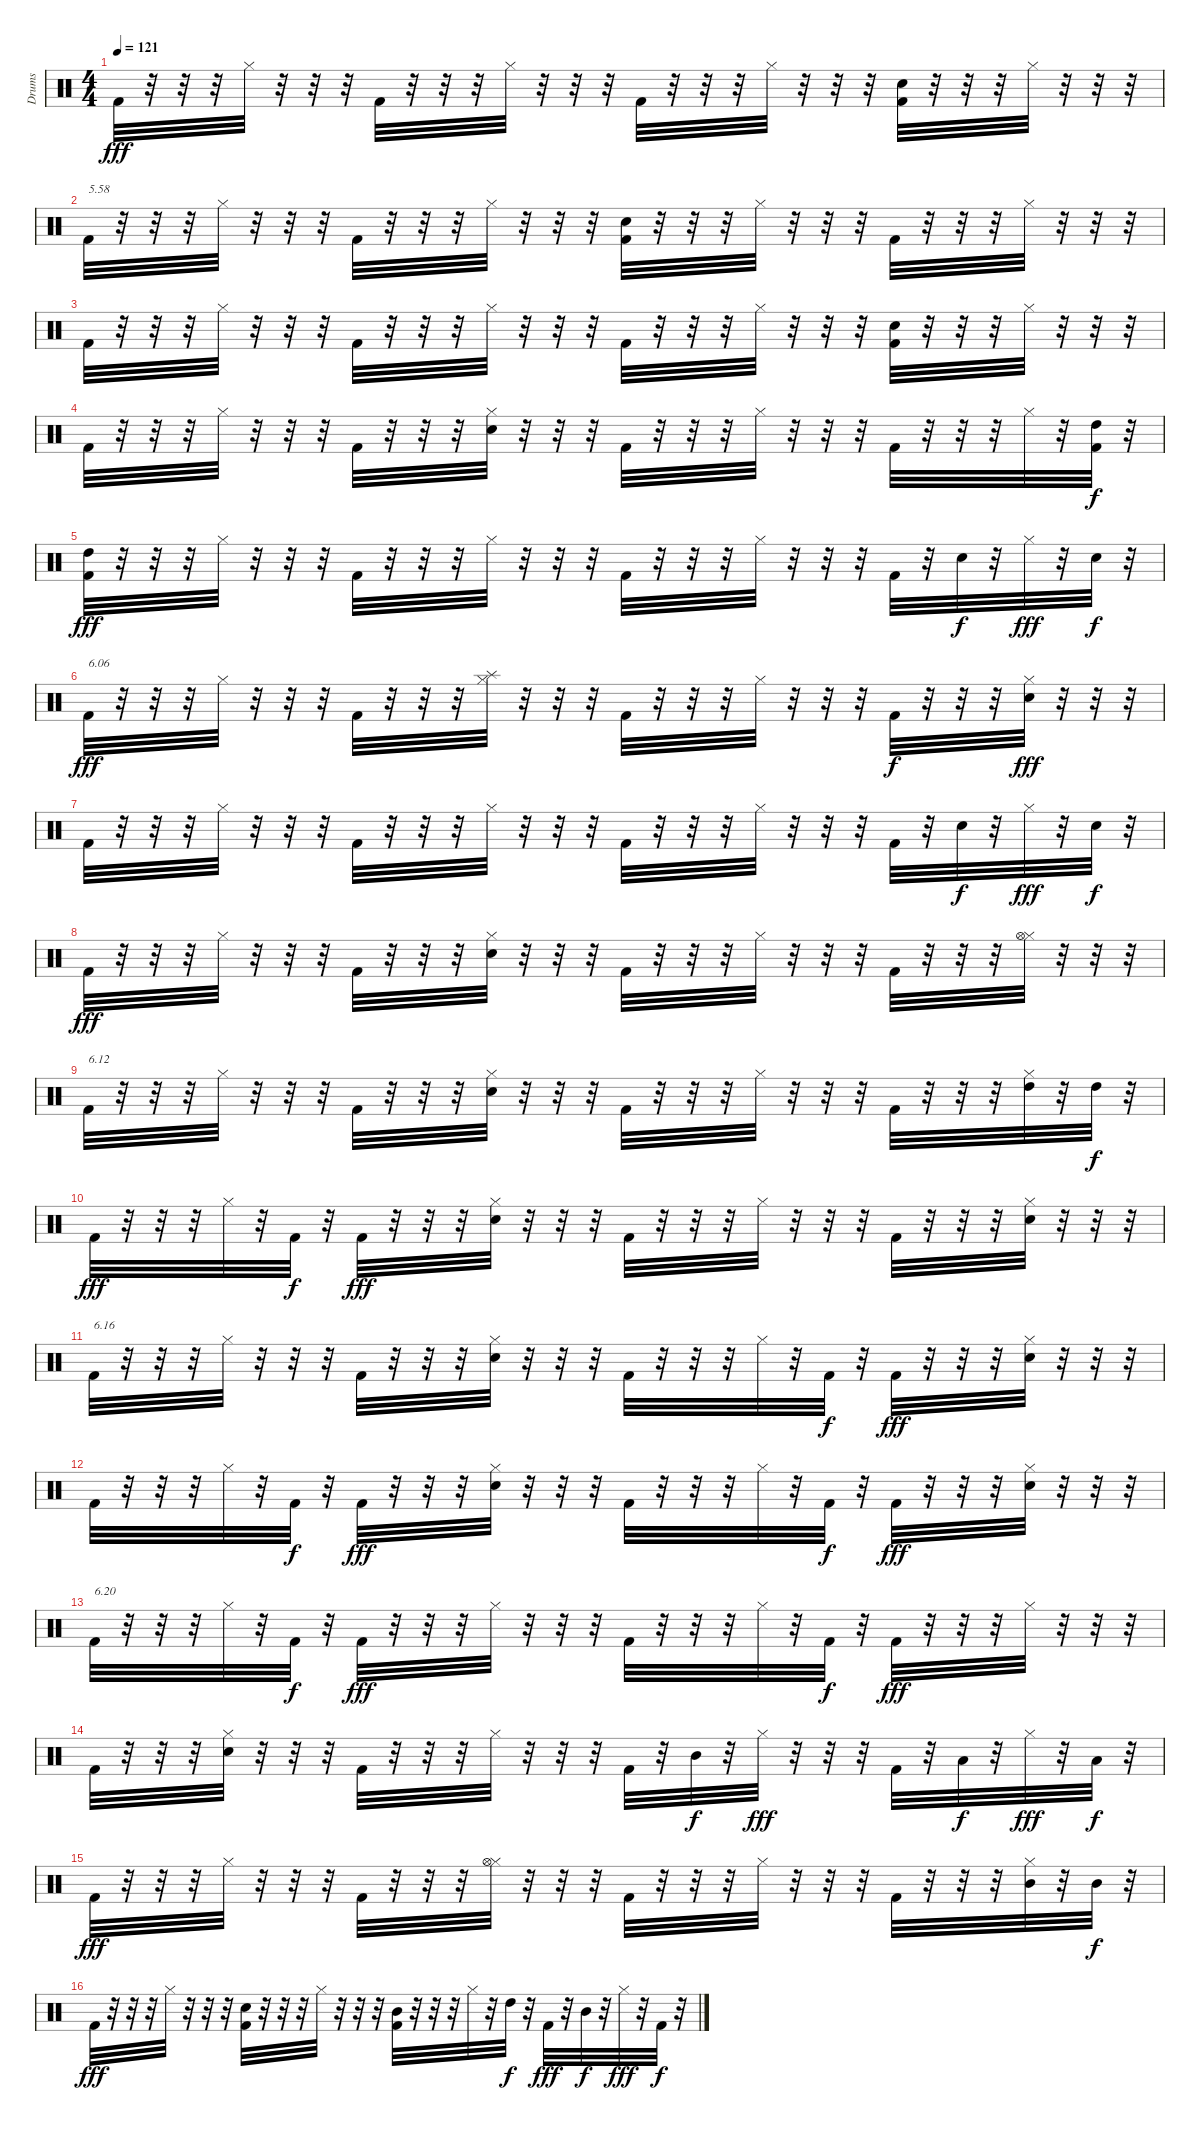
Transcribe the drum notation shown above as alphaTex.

\track ("Drums" "Drums") {instrument percussion}
\staff {score}
\articulation defaults
\ts (4 4)
\tempo 121
\clef neutral
\ks c "Kick (hit) 2".32{dy fff}
r.32 r.32 r.32 "Hi-Hat (closed)".32 r.32 r.32 r.32 "Kick (hit) 2".32 r.32 r.32 r.32 "Hi-Hat (closed)".32 r.32 r.32 r.32 "Kick (hit) 2".32 r.32 r.32 r.32 "Hi-Hat (closed)".32 r.32 r.32 r.32 ("Kick (hit) 2" "Snare (hit) 2").32 r.32 r.32 r.32 "Hi-Hat (closed)".32 r.32 r.32 r.32 |
"Kick (hit) 2".32{txt "5.58"} r.32 r.32 r.32 "Hi-Hat (closed)".32 r.32 r.32 r.32 "Kick (hit) 2".32 r.32 r.32 r.32 "Hi-Hat (closed)".32 r.32 r.32 r.32 ("Kick (hit) 2" "Snare (hit) 2").32 r.32 r.32 r.32 "Hi-Hat (closed)".32 r.32 r.32 r.32 "Kick (hit) 2".32 r.32 r.32 r.32 "Hi-Hat (closed)".32 r.32 r.32 r.32 |
"Kick (hit) 2".32 r.32 r.32 r.32 "Hi-Hat (closed)".32 r.32 r.32 r.32 "Kick (hit) 2".32 r.32 r.32 r.32 "Hi-Hat (closed)".32 r.32 r.32 r.32 "Kick (hit) 2".32 r.32 r.32 r.32 "Hi-Hat (closed)".32 r.32 r.32 r.32 ("Kick (hit) 2" "Snare (hit) 2").32 r.32 r.32 r.32 "Hi-Hat (closed)".32 r.32 r.32 r.32 |
"Kick (hit) 2".32 r.32 r.32 r.32 "Hi-Hat (closed)".32 r.32 r.32 r.32 "Kick (hit) 2".32 r.32 r.32 r.32 ("Hi-Hat (closed)" "Snare (hit) 2").32 r.32 r.32 r.32 "Kick (hit) 2".32 r.32 r.32 r.32 "Hi-Hat (closed)".32 r.32 r.32 r.32 "Kick (hit) 2".32 r.32 r.32 r.32 "Hi-Hat (closed)".32 r.32 ("Kick (hit) 2" "High Tom (hit)").32{dy f} r.32 |
("Kick (hit) 2" "High Tom (hit)").32{dy fff} r.32 r.32 r.32 "Hi-Hat (closed)".32 r.32 r.32 r.32 "Kick (hit) 2".32 r.32 r.32 r.32 "Hi-Hat (closed)".32 r.32 r.32 r.32 "Kick (hit) 2".32 r.32 r.32 r.32 "Hi-Hat (closed)".32 r.32 r.32 r.32 "Kick (hit) 2".32 r.32 "Snare (hit) 2".32{dy f} r.32 "Hi-Hat (closed)".32{dy fff} r.32 "Snare (hit) 2".32{dy f} r.32 |
"Kick (hit) 2".32{txt "6.06" dy fff} r.32 r.32 r.32 "Hi-Hat (closed)".32 r.32 r.32 r.32 "Kick (hit) 2".32 r.32 r.32 r.32 ("Hi-Hat (closed)" "Splash (hit)").32 r.32 r.32 r.32 "Kick (hit) 2".32 r.32 r.32 r.32 "Hi-Hat (closed)".32 r.32 r.32 r.32 "Kick (hit) 2".32{dy f} r.32 r.32 r.32 ("Hi-Hat (closed)" "Snare (hit) 2").32{dy fff} r.32 r.32 r.32 |
"Kick (hit) 2".32 r.32 r.32 r.32 "Hi-Hat (closed)".32 r.32 r.32 r.32 "Kick (hit) 2".32 r.32 r.32 r.32 "Hi-Hat (closed)".32 r.32 r.32 r.32 "Kick (hit) 2".32 r.32 r.32 r.32 "Hi-Hat (closed)".32 r.32 r.32 r.32 "Kick (hit) 2".32 r.32 "Snare (hit) 2".32{dy f} r.32 "Hi-Hat (closed)".32{dy fff} r.32 "Snare (hit) 2".32{dy f} r.32 |
"Kick (hit) 2".32{dy fff} r.32 r.32 r.32 "Hi-Hat (closed)".32 r.32 r.32 r.32 "Kick (hit) 2".32 r.32 r.32 r.32 ("Hi-Hat (closed)" "Snare (hit) 2").32 r.32 r.32 r.32 "Kick (hit) 2".32 r.32 r.32 r.32 "Hi-Hat (closed)".32 r.32 r.32 r.32 "Kick (hit) 2".32 r.32 r.32 r.32 ("Hi-Hat (closed)" "Hi-Hat (open)").32 r.32 r.32 r.32 |
"Kick (hit) 2".32{txt "6.12"} r.32 r.32 r.32 "Hi-Hat (closed)".32 r.32 r.32 r.32 "Kick (hit) 2".32 r.32 r.32 r.32 ("Hi-Hat (closed)" "Snare (hit) 2").32 r.32 r.32 r.32 "Kick (hit) 2".32 r.32 r.32 r.32 "Hi-Hat (closed)".32 r.32 r.32 r.32 "Kick (hit) 2".32 r.32 r.32 r.32 ("Hi-Hat (closed)" "High Tom (hit)").32 r.32 "High Tom (hit)".32{dy f} r.32 |
"Kick (hit) 2".32{dy fff} r.32 r.32 r.32 "Hi-Hat (closed)".32 r.32 "Kick (hit) 2".32{dy f} r.32 "Kick (hit) 2".32{dy fff} r.32 r.32 r.32 ("Hi-Hat (closed)" "Snare (hit) 2").32 r.32 r.32 r.32 "Kick (hit) 2".32 r.32 r.32 r.32 "Hi-Hat (closed)".32 r.32 r.32 r.32 "Kick (hit) 2".32 r.32 r.32 r.32 ("Hi-Hat (closed)" "Snare (hit) 2").32 r.32 r.32 r.32 |
"Kick (hit) 2".32{txt "6.16"} r.32 r.32 r.32 "Hi-Hat (closed)".32 r.32 r.32 r.32 "Kick (hit) 2".32 r.32 r.32 r.32 ("Hi-Hat (closed)" "Snare (hit) 2").32 r.32 r.32 r.32 "Kick (hit) 2".32 r.32 r.32 r.32 "Hi-Hat (closed)".32 r.32 "Kick (hit) 2".32{dy f} r.32 "Kick (hit) 2".32{dy fff} r.32 r.32 r.32 ("Hi-Hat (closed)" "Snare (hit) 2").32 r.32 r.32 r.32 |
"Kick (hit) 2".32 r.32 r.32 r.32 "Hi-Hat (closed)".32 r.32 "Kick (hit) 2".32{dy f} r.32 "Kick (hit) 2".32{dy fff} r.32 r.32 r.32 ("Hi-Hat (closed)" "Snare (hit) 2").32 r.32 r.32 r.32 "Kick (hit) 2".32 r.32 r.32 r.32 "Hi-Hat (closed)".32 r.32 "Kick (hit) 2".32{dy f} r.32 "Kick (hit) 2".32{dy fff} r.32 r.32 r.32 ("Hi-Hat (closed)" "Snare (hit) 2").32 r.32 r.32 r.32 |
"Kick (hit) 2".32{txt "6.20"} r.32 r.32 r.32 "Hi-Hat (closed)".32 r.32 "Kick (hit) 2".32{dy f} r.32 "Kick (hit) 2".32{dy fff} r.32 r.32 r.32 "Hi-Hat (closed)".32 r.32 r.32 r.32 "Kick (hit) 2".32 r.32 r.32 r.32 "Hi-Hat (closed)".32 r.32 "Kick (hit) 2".32{dy f} r.32 "Kick (hit) 2".32{dy fff} r.32 r.32 r.32 "Hi-Hat (closed)".32 r.32 r.32 r.32 |
"Kick (hit) 2".32 r.32 r.32 r.32 ("Hi-Hat (closed)" "Snare (hit) 2").32 r.32 r.32 r.32 "Kick (hit) 2".32 r.32 r.32 r.32 "Hi-Hat (closed)".32 r.32 r.32 r.32 "Kick (hit) 2".32 r.32 "Mid Tom (hit)".32{dy f} r.32 "Hi-Hat (closed)".32{dy fff} r.32 r.32 r.32 "Kick (hit) 2".32 r.32 "Low Tom (hit)".32{dy f} r.32 "Hi-Hat (closed)".32{dy fff} r.32 "Low Tom (hit)".32{dy f} r.32 |
"Kick (hit) 2".32{dy fff} r.32 r.32 r.32 "Hi-Hat (closed)".32 r.32 r.32 r.32 "Kick (hit) 2".32 r.32 r.32 r.32 ("Hi-Hat (closed)" "Hi-Hat (open)").32 r.32 r.32 r.32 "Kick (hit) 2".32 r.32 r.32 r.32 "Hi-Hat (closed)".32 r.32 r.32 r.32 "Kick (hit) 2".32 r.32 r.32 r.32 ("Hi-Hat (closed)" "Mid Tom (hit)").32 r.32 "Mid Tom (hit)".32{dy f} r.32 |
"Kick (hit) 2".32{dy fff} r.32 r.32 r.32 "Hi-Hat (closed)".32 r.32 r.32 r.32 ("Kick (hit) 2" "Snare (hit) 2").32 r.32 r.32 r.32 "Hi-Hat (closed)".32 r.32 r.32 r.32 ("Kick (hit) 2" "Mid Tom (hit)").32 r.32 r.32 r.32 "Hi-Hat (closed)".32 r.32 "High Tom (hit)".32{dy f} r.32 "Kick (hit) 2".32{dy fff} r.32 "Mid Tom (hit)".32{dy f} r.32 "Hi-Hat (closed)".32{dy fff} r.32 "Kick (hit) 2".32{dy f} r.32
